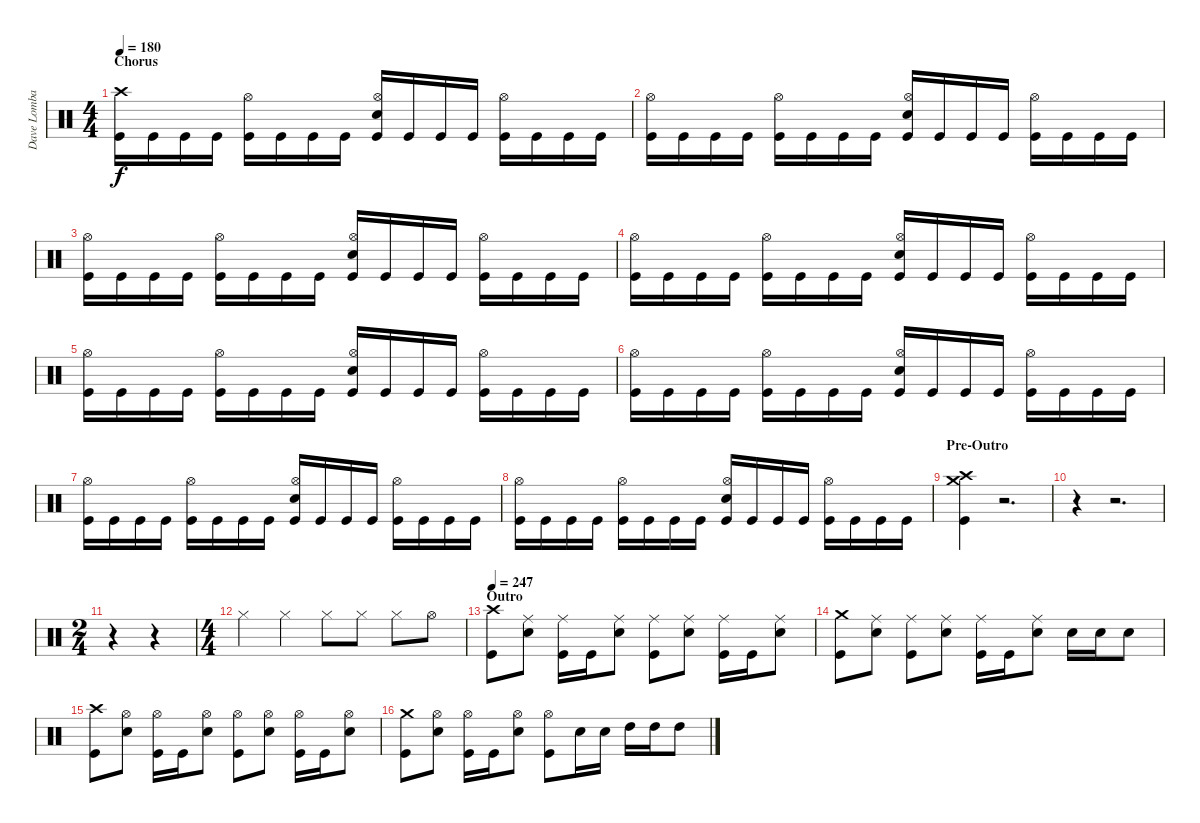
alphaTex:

\track ("Dave Lombardo" "Dave Lomba") {instrument percussion}
\staff {score}
\articulation defaults
\ts (4 4)
\section ("" "Chorus")
\tempo 180
\clef neutral
\ks c
("Crash high (hit)" "Kick (hit)").16{dy f} "Kick (hit)".16 "Kick (hit)".16 "Kick (hit)".16 ("Hi-Hat (open)" "Kick (hit)").16 "Kick (hit)".16 "Kick (hit)".16 "Kick (hit)".16 ("Hi-Hat (open)" "Snare (hit) 2" "Kick (hit)").16 "Kick (hit)".16 "Kick (hit)".16 "Kick (hit)".16 ("Hi-Hat (open)" "Kick (hit)").16 "Kick (hit)".16 "Kick (hit)".16 "Kick (hit)".16 |
("Hi-Hat (open)" "Kick (hit)").16 "Kick (hit)".16 "Kick (hit)".16 "Kick (hit)".16 ("Hi-Hat (open)" "Kick (hit)").16 "Kick (hit)".16 "Kick (hit)".16 "Kick (hit)".16 ("Hi-Hat (open)" "Snare (hit) 2" "Kick (hit)").16 "Kick (hit)".16 "Kick (hit)".16 "Kick (hit)".16 ("Hi-Hat (open)" "Kick (hit)").16 "Kick (hit)".16 "Kick (hit)".16 "Kick (hit)".16 |
("Hi-Hat (open)" "Kick (hit)").16 "Kick (hit)".16 "Kick (hit)".16 "Kick (hit)".16 ("Hi-Hat (open)" "Kick (hit)").16 "Kick (hit)".16 "Kick (hit)".16 "Kick (hit)".16 ("Hi-Hat (open)" "Snare (hit) 2" "Kick (hit)").16 "Kick (hit)".16 "Kick (hit)".16 "Kick (hit)".16 ("Hi-Hat (open)" "Kick (hit)").16 "Kick (hit)".16 "Kick (hit)".16 "Kick (hit)".16 |
("Hi-Hat (open)" "Kick (hit)").16 "Kick (hit)".16 "Kick (hit)".16 "Kick (hit)".16 ("Hi-Hat (open)" "Kick (hit)").16 "Kick (hit)".16 "Kick (hit)".16 "Kick (hit)".16 ("Hi-Hat (open)" "Snare (hit) 2" "Kick (hit)").16 "Kick (hit)".16 "Kick (hit)".16 "Kick (hit)".16 ("Hi-Hat (open)" "Kick (hit)").16 "Kick (hit)".16 "Kick (hit)".16 "Kick (hit)".16 |
("Hi-Hat (open)" "Kick (hit)").16 "Kick (hit)".16 "Kick (hit)".16 "Kick (hit)".16 ("Hi-Hat (open)" "Kick (hit)").16 "Kick (hit)".16 "Kick (hit)".16 "Kick (hit)".16 ("Hi-Hat (open)" "Snare (hit) 2" "Kick (hit)").16 "Kick (hit)".16 "Kick (hit)".16 "Kick (hit)".16 ("Hi-Hat (open)" "Kick (hit)").16 "Kick (hit)".16 "Kick (hit)".16 "Kick (hit)".16 |
("Hi-Hat (open)" "Kick (hit)").16 "Kick (hit)".16 "Kick (hit)".16 "Kick (hit)".16 ("Hi-Hat (open)" "Kick (hit)").16 "Kick (hit)".16 "Kick (hit)".16 "Kick (hit)".16 ("Hi-Hat (open)" "Snare (hit) 2" "Kick (hit)").16 "Kick (hit)".16 "Kick (hit)".16 "Kick (hit)".16 ("Hi-Hat (open)" "Kick (hit)").16 "Kick (hit)".16 "Kick (hit)".16 "Kick (hit)".16 |
("Hi-Hat (open)" "Kick (hit)").16 "Kick (hit)".16 "Kick (hit)".16 "Kick (hit)".16 ("Hi-Hat (open)" "Kick (hit)").16 "Kick (hit)".16 "Kick (hit)".16 "Kick (hit)".16 ("Hi-Hat (open)" "Snare (hit) 2" "Kick (hit)").16 "Kick (hit)".16 "Kick (hit)".16 "Kick (hit)".16 ("Hi-Hat (open)" "Kick (hit)").16 "Kick (hit)".16 "Kick (hit)".16 "Kick (hit)".16 |
("Hi-Hat (open)" "Kick (hit)").16 "Kick (hit)".16 "Kick (hit)".16 "Kick (hit)".16 ("Hi-Hat (open)" "Kick (hit)").16 "Kick (hit)".16 "Kick (hit)".16 "Kick (hit)".16 ("Hi-Hat (open)" "Snare (hit) 2" "Kick (hit)").16 "Kick (hit)".16 "Kick (hit)".16 "Kick (hit)".16 ("Hi-Hat (open)" "Kick (hit)").16 "Kick (hit)".16 "Kick (hit)".16 "Kick (hit)".16 |
\section ("" "Pre-Outro")
("Crash high (hit)" "Crash medium (hit)" "Kick (hit)").4 r.2{d} |
r.4 r.2{d} |
\ts (2 4)
r.4 r.4 |
\ts (4 4)
"Hi-Hat (closed)".4 "Hi-Hat (closed)".4 "Hi-Hat (closed)".8 "Hi-Hat (closed)".8 "Hi-Hat (closed)".8 "Hi-Hat (open)".8 |
\section ("" "Outro")
\tempo 247
("Crash high (hit)" "Kick (hit)").8 ("Ride (middle)" "Snare (hit) 2").8 ("Ride (middle)" "Kick (hit)").16 "Kick (hit)".16 ("Ride (middle)" "Snare (hit) 2").8 ("Ride (middle)" "Kick (hit)").8 ("Ride (middle)" "Snare (hit) 2").8 ("Ride (middle)" "Kick (hit)").16 "Kick (hit)".16 ("Ride (middle)" "Snare (hit) 2").8 |
("Crash medium (hit)" "Kick (hit)").8 ("Ride (middle)" "Snare (hit) 2").8 ("Ride (middle)" "Kick (hit)").8 ("Ride (middle)" "Snare (hit) 2").8 ("Ride (middle)" "Kick (hit)").16 "Kick (hit)".16 ("Ride (middle)" "Snare (hit) 2").8 "Snare (hit) 2".16 "Snare (hit) 2".16 "Snare (hit) 2".8 |
("Crash high (hit)" "Kick (hit)").8 ("Hi-Hat (open)" "Snare (hit) 2").8 ("Hi-Hat (open)" "Kick (hit)").16 "Kick (hit)".16 ("Hi-Hat (open)" "Snare (hit) 2").8 ("Hi-Hat (open)" "Kick (hit)").8 ("Hi-Hat (open)" "Snare (hit) 2").8 ("Hi-Hat (open)" "Kick (hit)").16 "Kick (hit)".16 ("Hi-Hat (open)" "Snare (hit) 2").8 |
("Crash medium (hit)" "Kick (hit)").8 ("Hi-Hat (open)" "Snare (hit) 2").8 ("Hi-Hat (open)" "Kick (hit)").16 "Kick (hit)".16 ("Hi-Hat (open)" "Snare (hit) 2").8 ("Hi-Hat (open)" "Kick (hit)").8 "Snare (hit) 2".16 "Snare (hit) 2".16 "High Tom (hit)".16 "High Tom (hit)".16 "High Tom (hit)".8
